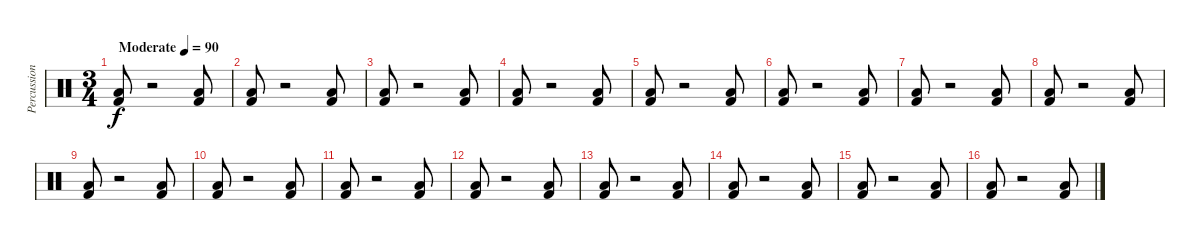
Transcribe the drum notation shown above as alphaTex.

\track ("Percussion" "Percussion") {instrument percussion}
\staff {score}
\articulation defaults
\ts (3 4)
\tempo (90 "Moderate")
\clef neutral
\ks c
("Low Floor Tom (hit)" "Kick (hit) 2").8{dy f} r.2 ("Low Floor Tom (hit)" "Kick (hit) 2").8 |
("Low Floor Tom (hit)" "Kick (hit) 2").8 r.2 ("Low Floor Tom (hit)" "Kick (hit) 2").8 |
("Low Floor Tom (hit)" "Kick (hit) 2").8 r.2 ("Low Floor Tom (hit)" "Kick (hit) 2").8 |
("Low Floor Tom (hit)" "Kick (hit) 2").8 r.2 ("Low Floor Tom (hit)" "Kick (hit) 2").8 |
("Low Floor Tom (hit)" "Kick (hit) 2").8 r.2 ("Low Floor Tom (hit)" "Kick (hit) 2").8 |
("Low Floor Tom (hit)" "Kick (hit) 2").8 r.2 ("Low Floor Tom (hit)" "Kick (hit) 2").8 |
("Low Floor Tom (hit)" "Kick (hit) 2").8 r.2 ("Low Floor Tom (hit)" "Kick (hit) 2").8 |
("Low Floor Tom (hit)" "Kick (hit) 2").8 r.2 ("Low Floor Tom (hit)" "Kick (hit) 2").8 |
("Low Floor Tom (hit)" "Kick (hit) 2").8 r.2 ("Low Floor Tom (hit)" "Kick (hit) 2").8 |
("Low Floor Tom (hit)" "Kick (hit) 2").8 r.2 ("Low Floor Tom (hit)" "Kick (hit) 2").8 |
("Low Floor Tom (hit)" "Kick (hit) 2").8 r.2 ("Low Floor Tom (hit)" "Kick (hit) 2").8 |
("Low Floor Tom (hit)" "Kick (hit) 2").8 r.2 ("Low Floor Tom (hit)" "Kick (hit) 2").8 |
("Low Floor Tom (hit)" "Kick (hit) 2").8 r.2 ("Low Floor Tom (hit)" "Kick (hit) 2").8 |
("Low Floor Tom (hit)" "Kick (hit) 2").8 r.2 ("Low Floor Tom (hit)" "Kick (hit) 2").8 |
("Low Floor Tom (hit)" "Kick (hit) 2").8 r.2 ("Low Floor Tom (hit)" "Kick (hit) 2").8 |
("Low Floor Tom (hit)" "Kick (hit) 2").8 r.2 ("Low Floor Tom (hit)" "Kick (hit) 2").8
